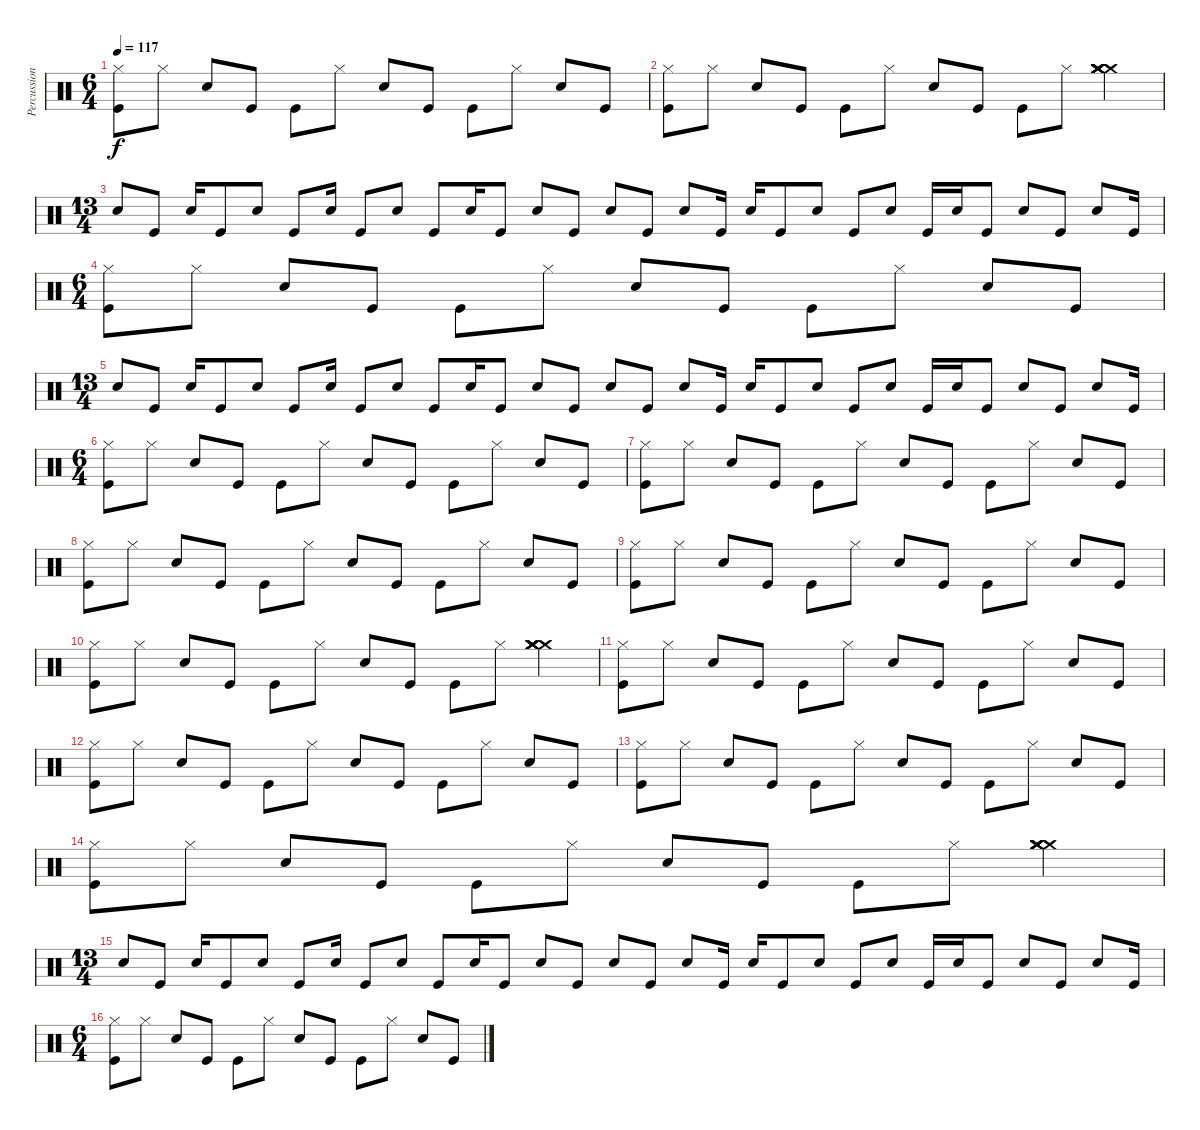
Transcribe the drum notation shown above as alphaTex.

\track ("Percussions" "Percussion") {instrument percussion}
\staff {score}
\articulation defaults
\ts (6 4)
\tempo 117
\clef neutral
\ks c
("Kick (hit)" "Hi-Hat (closed)").8{dy f} "Hi-Hat (closed)".8 "Snare (hit) 2".8 "Kick (hit)".8 "Kick (hit)".8 "Hi-Hat (closed)".8 "Snare (hit) 2".8 "Kick (hit)".8 "Kick (hit)".8 "Hi-Hat (closed)".8 "Snare (hit) 2".8 "Kick (hit)".8 |
("Kick (hit)" "Hi-Hat (closed)").8 "Hi-Hat (closed)".8 "Snare (hit) 2".8 "Kick (hit)".8 "Kick (hit)".8 "Hi-Hat (closed)".8 "Snare (hit) 2".8 "Kick (hit)".8 "Kick (hit)".8 "Hi-Hat (closed)".8 ("Crash medium (hit)" "Crash medium (hit)" "Crash medium (hit)" "Crash medium (hit)" "Crash medium (hit)" "Crash medium (hit)").4 |
\ts (13 4)
"Snare (hit) 2".8 "Kick (hit)".8 "Snare (hit) 2".16 "Kick (hit)".8 "Snare (hit) 2".8 "Kick (hit)".8 "Snare (hit) 2".16 "Kick (hit)".8 "Snare (hit) 2".8 "Kick (hit)".8 "Snare (hit) 2".16 "Kick (hit)".8 "Snare (hit) 2".8 "Kick (hit)".8 "Snare (hit) 2".8 "Kick (hit)".8 "Snare (hit) 2".8 "Kick (hit)".16 "Snare (hit) 2".16 "Kick (hit)".8 "Snare (hit) 2".8 "Kick (hit)".8 "Snare (hit) 2".8 "Kick (hit)".16 "Snare (hit) 2".16 "Kick (hit)".8 "Snare (hit) 2".8 "Kick (hit)".8 "Snare (hit) 2".8 "Kick (hit)".16 |
\ts (6 4)
("Kick (hit)" "Hi-Hat (closed)").8 "Hi-Hat (closed)".8 "Snare (hit) 2".8 "Kick (hit)".8 "Kick (hit)".8 "Hi-Hat (closed)".8 "Snare (hit) 2".8 "Kick (hit)".8 "Kick (hit)".8 "Hi-Hat (closed)".8 "Snare (hit) 2".8 "Kick (hit)".8 |
\ts (13 4)
"Snare (hit) 2".8 "Kick (hit)".8 "Snare (hit) 2".16 "Kick (hit)".8 "Snare (hit) 2".8 "Kick (hit)".8 "Snare (hit) 2".16 "Kick (hit)".8 "Snare (hit) 2".8 "Kick (hit)".8 "Snare (hit) 2".16 "Kick (hit)".8 "Snare (hit) 2".8 "Kick (hit)".8 "Snare (hit) 2".8 "Kick (hit)".8 "Snare (hit) 2".8 "Kick (hit)".16 "Snare (hit) 2".16 "Kick (hit)".8 "Snare (hit) 2".8 "Kick (hit)".8 "Snare (hit) 2".8 "Kick (hit)".16 "Snare (hit) 2".16 "Kick (hit)".8 "Snare (hit) 2".8 "Kick (hit)".8 "Snare (hit) 2".8 "Kick (hit)".16 |
\ts (6 4)
("Kick (hit)" "Hi-Hat (closed)").8 "Hi-Hat (closed)".8 "Snare (hit) 2".8 "Kick (hit)".8 "Kick (hit)".8 "Hi-Hat (closed)".8 "Snare (hit) 2".8 "Kick (hit)".8 "Kick (hit)".8 "Hi-Hat (closed)".8 "Snare (hit) 2".8 "Kick (hit)".8 |
("Kick (hit)" "Hi-Hat (closed)").8 "Hi-Hat (closed)".8 "Snare (hit) 2".8 "Kick (hit)".8 "Kick (hit)".8 "Hi-Hat (closed)".8 "Snare (hit) 2".8 "Kick (hit)".8 "Kick (hit)".8 "Hi-Hat (closed)".8 "Snare (hit) 2".8 "Kick (hit)".8 |
("Kick (hit)" "Hi-Hat (closed)").8 "Hi-Hat (closed)".8 "Snare (hit) 2".8 "Kick (hit)".8 "Kick (hit)".8 "Hi-Hat (closed)".8 "Snare (hit) 2".8 "Kick (hit)".8 "Kick (hit)".8 "Hi-Hat (closed)".8 "Snare (hit) 2".8 "Kick (hit)".8 |
("Kick (hit)" "Hi-Hat (closed)").8 "Hi-Hat (closed)".8 "Snare (hit) 2".8 "Kick (hit)".8 "Kick (hit)".8 "Hi-Hat (closed)".8 "Snare (hit) 2".8 "Kick (hit)".8 "Kick (hit)".8 "Hi-Hat (closed)".8 "Snare (hit) 2".8 "Kick (hit)".8 |
("Kick (hit)" "Hi-Hat (closed)").8 "Hi-Hat (closed)".8 "Snare (hit) 2".8 "Kick (hit)".8 "Kick (hit)".8 "Hi-Hat (closed)".8 "Snare (hit) 2".8 "Kick (hit)".8 "Kick (hit)".8 "Hi-Hat (closed)".8 ("Crash medium (hit)" "Crash medium (hit)" "Crash medium (hit)" "Crash medium (hit)" "Crash medium (hit)" "Crash medium (hit)").4 |
("Kick (hit)" "Hi-Hat (closed)").8 "Hi-Hat (closed)".8 "Snare (hit) 2".8 "Kick (hit)".8 "Kick (hit)".8 "Hi-Hat (closed)".8 "Snare (hit) 2".8 "Kick (hit)".8 "Kick (hit)".8 "Hi-Hat (closed)".8 "Snare (hit) 2".8 "Kick (hit)".8 |
("Kick (hit)" "Hi-Hat (closed)").8 "Hi-Hat (closed)".8 "Snare (hit) 2".8 "Kick (hit)".8 "Kick (hit)".8 "Hi-Hat (closed)".8 "Snare (hit) 2".8 "Kick (hit)".8 "Kick (hit)".8 "Hi-Hat (closed)".8 "Snare (hit) 2".8 "Kick (hit)".8 |
("Kick (hit)" "Hi-Hat (closed)").8 "Hi-Hat (closed)".8 "Snare (hit) 2".8 "Kick (hit)".8 "Kick (hit)".8 "Hi-Hat (closed)".8 "Snare (hit) 2".8 "Kick (hit)".8 "Kick (hit)".8 "Hi-Hat (closed)".8 "Snare (hit) 2".8 "Kick (hit)".8 |
("Kick (hit)" "Hi-Hat (closed)").8 "Hi-Hat (closed)".8 "Snare (hit) 2".8 "Kick (hit)".8 "Kick (hit)".8 "Hi-Hat (closed)".8 "Snare (hit) 2".8 "Kick (hit)".8 "Kick (hit)".8 "Hi-Hat (closed)".8 ("Crash medium (hit)" "Crash medium (hit)" "Crash medium (hit)" "Crash medium (hit)" "Crash medium (hit)" "Crash medium (hit)").4 |
\ts (13 4)
"Snare (hit) 2".8 "Kick (hit)".8 "Snare (hit) 2".16 "Kick (hit)".8 "Snare (hit) 2".8 "Kick (hit)".8 "Snare (hit) 2".16 "Kick (hit)".8 "Snare (hit) 2".8 "Kick (hit)".8 "Snare (hit) 2".16 "Kick (hit)".8 "Snare (hit) 2".8 "Kick (hit)".8 "Snare (hit) 2".8 "Kick (hit)".8 "Snare (hit) 2".8 "Kick (hit)".16 "Snare (hit) 2".16 "Kick (hit)".8 "Snare (hit) 2".8 "Kick (hit)".8 "Snare (hit) 2".8 "Kick (hit)".16 "Snare (hit) 2".16 "Kick (hit)".8 "Snare (hit) 2".8 "Kick (hit)".8 "Snare (hit) 2".8 "Kick (hit)".16 |
\ts (6 4)
("Kick (hit)" "Hi-Hat (closed)").8 "Hi-Hat (closed)".8 "Snare (hit) 2".8 "Kick (hit)".8 "Kick (hit)".8 "Hi-Hat (closed)".8 "Snare (hit) 2".8 "Kick (hit)".8 "Kick (hit)".8 "Hi-Hat (closed)".8 "Snare (hit) 2".8 "Kick (hit)".8
